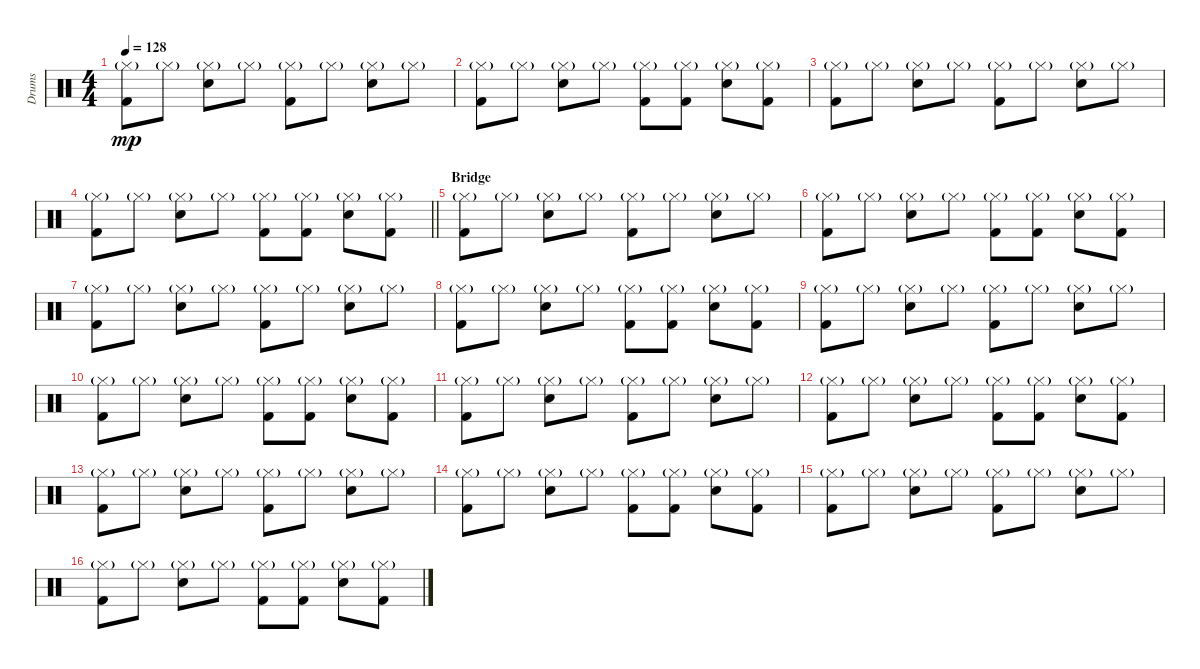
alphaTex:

\track ("Drums" "Drums") {instrument percussion}
\staff {score}
\articulation defaults
\ts (4 4)
\tempo 128
\clef neutral
\ks c
("Kick (hit) 2" "Hi-Hat (closed)"{g}).8{dy mp} "Hi-Hat (closed)"{g}.8 ("Snare (hit) 2" "Hi-Hat (closed)"{g}).8 "Hi-Hat (closed)"{g}.8 ("Kick (hit) 2" "Hi-Hat (closed)"{g}).8 "Hi-Hat (closed)"{g}.8 ("Snare (hit) 2" "Hi-Hat (closed)"{g}).8 "Hi-Hat (closed)"{g}.8 |
("Kick (hit) 2" "Hi-Hat (closed)"{g}).8 "Hi-Hat (closed)"{g}.8 ("Snare (hit) 2" "Hi-Hat (closed)"{g}).8 "Hi-Hat (closed)"{g}.8 ("Kick (hit) 2" "Hi-Hat (closed)"{g}).8 ("Kick (hit) 2" "Hi-Hat (closed)"{g}).8 ("Snare (hit) 2" "Hi-Hat (closed)"{g}).8 ("Kick (hit) 2" "Hi-Hat (closed)"{g}).8 |
("Kick (hit) 2" "Hi-Hat (closed)"{g}).8 "Hi-Hat (closed)"{g}.8 ("Snare (hit) 2" "Hi-Hat (closed)"{g}).8 "Hi-Hat (closed)"{g}.8 ("Kick (hit) 2" "Hi-Hat (closed)"{g}).8 "Hi-Hat (closed)"{g}.8 ("Snare (hit) 2" "Hi-Hat (closed)"{g}).8 "Hi-Hat (closed)"{g}.8 |
\barLineRight lightlight
("Kick (hit) 2" "Hi-Hat (closed)"{g}).8 "Hi-Hat (closed)"{g}.8 ("Snare (hit) 2" "Hi-Hat (closed)"{g}).8 "Hi-Hat (closed)"{g}.8 ("Kick (hit) 2" "Hi-Hat (closed)"{g}).8 ("Kick (hit) 2" "Hi-Hat (closed)"{g}).8 ("Snare (hit) 2" "Hi-Hat (closed)"{g}).8 ("Kick (hit) 2" "Hi-Hat (closed)"{g}).8 |
\section ("" "Bridge")
("Kick (hit) 2" "Hi-Hat (closed)"{g}).8 "Hi-Hat (closed)"{g}.8 ("Snare (hit) 2" "Hi-Hat (closed)"{g}).8 "Hi-Hat (closed)"{g}.8 ("Kick (hit) 2" "Hi-Hat (closed)"{g}).8 "Hi-Hat (closed)"{g}.8 ("Snare (hit) 2" "Hi-Hat (closed)"{g}).8 "Hi-Hat (closed)"{g}.8 |
("Kick (hit) 2" "Hi-Hat (closed)"{g}).8 "Hi-Hat (closed)"{g}.8 ("Snare (hit) 2" "Hi-Hat (closed)"{g}).8 "Hi-Hat (closed)"{g}.8 ("Kick (hit) 2" "Hi-Hat (closed)"{g}).8 ("Kick (hit) 2" "Hi-Hat (closed)"{g}).8 ("Snare (hit) 2" "Hi-Hat (closed)"{g}).8 ("Kick (hit) 2" "Hi-Hat (closed)"{g}).8 |
("Kick (hit) 2" "Hi-Hat (closed)"{g}).8 "Hi-Hat (closed)"{g}.8 ("Snare (hit) 2" "Hi-Hat (closed)"{g}).8 "Hi-Hat (closed)"{g}.8 ("Kick (hit) 2" "Hi-Hat (closed)"{g}).8 "Hi-Hat (closed)"{g}.8 ("Snare (hit) 2" "Hi-Hat (closed)"{g}).8 "Hi-Hat (closed)"{g}.8 |
("Kick (hit) 2" "Hi-Hat (closed)"{g}).8 "Hi-Hat (closed)"{g}.8 ("Snare (hit) 2" "Hi-Hat (closed)"{g}).8 "Hi-Hat (closed)"{g}.8 ("Kick (hit) 2" "Hi-Hat (closed)"{g}).8 ("Kick (hit) 2" "Hi-Hat (closed)"{g}).8 ("Snare (hit) 2" "Hi-Hat (closed)"{g}).8 ("Kick (hit) 2" "Hi-Hat (closed)"{g}).8 |
("Kick (hit) 2" "Hi-Hat (closed)"{g}).8 "Hi-Hat (closed)"{g}.8 ("Snare (hit) 2" "Hi-Hat (closed)"{g}).8 "Hi-Hat (closed)"{g}.8 ("Kick (hit) 2" "Hi-Hat (closed)"{g}).8 "Hi-Hat (closed)"{g}.8 ("Snare (hit) 2" "Hi-Hat (closed)"{g}).8 "Hi-Hat (closed)"{g}.8 |
("Kick (hit) 2" "Hi-Hat (closed)"{g}).8 "Hi-Hat (closed)"{g}.8 ("Snare (hit) 2" "Hi-Hat (closed)"{g}).8 "Hi-Hat (closed)"{g}.8 ("Kick (hit) 2" "Hi-Hat (closed)"{g}).8 ("Kick (hit) 2" "Hi-Hat (closed)"{g}).8 ("Snare (hit) 2" "Hi-Hat (closed)"{g}).8 ("Kick (hit) 2" "Hi-Hat (closed)"{g}).8 |
("Kick (hit) 2" "Hi-Hat (closed)"{g}).8 "Hi-Hat (closed)"{g}.8 ("Snare (hit) 2" "Hi-Hat (closed)"{g}).8 "Hi-Hat (closed)"{g}.8 ("Kick (hit) 2" "Hi-Hat (closed)"{g}).8 "Hi-Hat (closed)"{g}.8 ("Snare (hit) 2" "Hi-Hat (closed)"{g}).8 "Hi-Hat (closed)"{g}.8 |
("Kick (hit) 2" "Hi-Hat (closed)"{g}).8 "Hi-Hat (closed)"{g}.8 ("Snare (hit) 2" "Hi-Hat (closed)"{g}).8 "Hi-Hat (closed)"{g}.8 ("Kick (hit) 2" "Hi-Hat (closed)"{g}).8 ("Kick (hit) 2" "Hi-Hat (closed)"{g}).8 ("Snare (hit) 2" "Hi-Hat (closed)"{g}).8 ("Kick (hit) 2" "Hi-Hat (closed)"{g}).8 |
("Kick (hit) 2" "Hi-Hat (closed)"{g}).8 "Hi-Hat (closed)"{g}.8 ("Snare (hit) 2" "Hi-Hat (closed)"{g}).8 "Hi-Hat (closed)"{g}.8 ("Kick (hit) 2" "Hi-Hat (closed)"{g}).8 "Hi-Hat (closed)"{g}.8 ("Snare (hit) 2" "Hi-Hat (closed)"{g}).8 "Hi-Hat (closed)"{g}.8 |
("Kick (hit) 2" "Hi-Hat (closed)"{g}).8 "Hi-Hat (closed)"{g}.8 ("Snare (hit) 2" "Hi-Hat (closed)"{g}).8 "Hi-Hat (closed)"{g}.8 ("Kick (hit) 2" "Hi-Hat (closed)"{g}).8 ("Kick (hit) 2" "Hi-Hat (closed)"{g}).8 ("Snare (hit) 2" "Hi-Hat (closed)"{g}).8 ("Kick (hit) 2" "Hi-Hat (closed)"{g}).8 |
("Kick (hit) 2" "Hi-Hat (closed)"{g}).8 "Hi-Hat (closed)"{g}.8 ("Snare (hit) 2" "Hi-Hat (closed)"{g}).8 "Hi-Hat (closed)"{g}.8 ("Kick (hit) 2" "Hi-Hat (closed)"{g}).8 "Hi-Hat (closed)"{g}.8 ("Snare (hit) 2" "Hi-Hat (closed)"{g}).8 "Hi-Hat (closed)"{g}.8 |
("Kick (hit) 2" "Hi-Hat (closed)"{g}).8 "Hi-Hat (closed)"{g}.8 ("Snare (hit) 2" "Hi-Hat (closed)"{g}).8 "Hi-Hat (closed)"{g}.8 ("Kick (hit) 2" "Hi-Hat (closed)"{g}).8 ("Kick (hit) 2" "Hi-Hat (closed)"{g}).8 ("Snare (hit) 2" "Hi-Hat (closed)"{g}).8 ("Kick (hit) 2" "Hi-Hat (closed)"{g}).8
